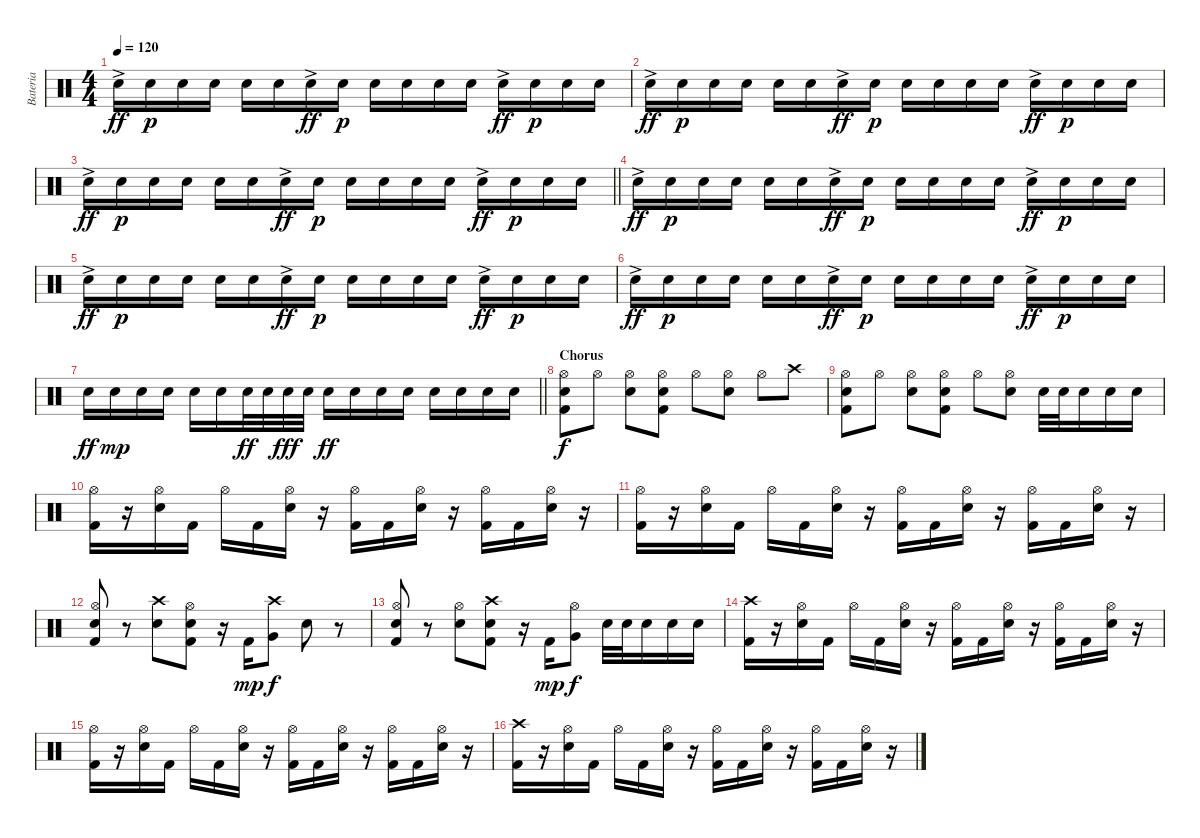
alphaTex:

\track ("Bateria" "Bateria") {instrument percussion}
\staff {score}
\articulation defaults
\ts (4 4)
\tempo 120
\clef neutral
\ks c "Electric Snare (hit)"{ac}.16{dy ff} "Electric Snare (hit)".16{dy p} "Electric Snare (hit)".16 "Electric Snare (hit)".16 "Electric Snare (hit)".16 "Electric Snare (hit)".16 "Electric Snare (hit)"{ac}.16{dy ff} "Electric Snare (hit)".16{dy p} "Electric Snare (hit)".16 "Electric Snare (hit)".16 "Electric Snare (hit)".16 "Electric Snare (hit)".16 "Electric Snare (hit)"{ac}.16{dy ff} "Electric Snare (hit)".16{dy p} "Electric Snare (hit)".16 "Electric Snare (hit)".16
|
"Electric Snare (hit)"{ac}.16{dy ff} "Electric Snare (hit)".16{dy p} "Electric Snare (hit)".16 "Electric Snare (hit)".16 "Electric Snare (hit)".16 "Electric Snare (hit)".16 "Electric Snare (hit)"{ac}.16{dy ff} "Electric Snare (hit)".16{dy p} "Electric Snare (hit)".16 "Electric Snare (hit)".16 "Electric Snare (hit)".16 "Electric Snare (hit)".16 "Electric Snare (hit)"{ac}.16{dy ff} "Electric Snare (hit)".16{dy p} "Electric Snare (hit)".16 "Electric Snare (hit)".16 |
\barLineRight lightlight "Electric Snare (hit)"{ac}.16{dy ff} "Electric Snare (hit)".16{dy p} "Electric Snare (hit)".16 "Electric Snare (hit)".16 "Electric Snare (hit)".16 "Electric Snare (hit)".16 "Electric Snare (hit)"{ac}.16{dy ff} "Electric Snare (hit)".16{dy p} "Electric Snare (hit)".16 "Electric Snare (hit)".16 "Electric Snare (hit)".16 "Electric Snare (hit)".16 "Electric Snare (hit)"{ac}.16{dy ff} "Electric Snare (hit)".16{dy p} "Electric Snare (hit)".16 "Electric Snare (hit)".16
|
"Electric Snare (hit)"{ac}.16{dy ff} "Electric Snare (hit)".16{dy p} "Electric Snare (hit)".16 "Electric Snare (hit)".16 "Electric Snare (hit)".16 "Electric Snare (hit)".16 "Electric Snare (hit)"{ac}.16{dy ff} "Electric Snare (hit)".16{dy p} "Electric Snare (hit)".16 "Electric Snare (hit)".16 "Electric Snare (hit)".16 "Electric Snare (hit)".16 "Electric Snare (hit)"{ac}.16{dy ff} "Electric Snare (hit)".16{dy p} "Electric Snare (hit)".16 "Electric Snare (hit)".16 |
"Electric Snare (hit)"{ac}.16{dy ff} "Electric Snare (hit)".16{dy p} "Electric Snare (hit)".16 "Electric Snare (hit)".16 "Electric Snare (hit)".16 "Electric Snare (hit)".16 "Electric Snare (hit)"{ac}.16{dy ff} "Electric Snare (hit)".16{dy p} "Electric Snare (hit)".16 "Electric Snare (hit)".16 "Electric Snare (hit)".16 "Electric Snare (hit)".16 "Electric Snare (hit)"{ac}.16{dy ff} "Electric Snare (hit)".16{dy p} "Electric Snare (hit)".16 "Electric Snare (hit)".16 |
"Electric Snare (hit)"{ac}.16{dy ff} "Electric Snare (hit)".16{dy p} "Electric Snare (hit)".16 "Electric Snare (hit)".16 "Electric Snare (hit)".16 "Electric Snare (hit)".16 "Electric Snare (hit)"{ac}.16{dy ff} "Electric Snare (hit)".16{dy p} "Electric Snare (hit)".16 "Electric Snare (hit)".16 "Electric Snare (hit)".16 "Electric Snare (hit)".16 "Electric Snare (hit)"{ac}.16{dy ff} "Electric Snare (hit)".16{dy p} "Electric Snare (hit)".16 "Electric Snare (hit)".16 |
\barLineRight lightlight "Electric Snare (hit)".16{dy ff} "Electric Snare (hit)".16{dy mp} "Electric Snare (hit)".16 "Electric Snare (hit)".16 "Electric Snare (hit)".16 "Electric Snare (hit)".16 "Electric Snare (hit)".32{dy ff} "Electric Snare (hit)".32 "Electric Snare (hit)".32{dy fff} "Electric Snare (hit)".32 "Electric Snare (hit)".16{dy ff} "Electric Snare (hit)".16 "Electric Snare (hit)".16 "Electric Snare (hit)".16 "Electric Snare (hit)".16 "Electric Snare (hit)".16 "Electric Snare (hit)".16 "Electric Snare (hit)".16
|
\section ("" "Chorus")
("Hi-Hat (open)" "Electric Snare (hit)" "Kick (hit) 2").8{dy f} "Hi-Hat (open)".8 ("Hi-Hat (open)" "Electric Snare (hit)").8 ("Hi-Hat (open)" "Electric Snare (hit)" "Kick (hit) 2").8 "Hi-Hat (open)".8 ("Hi-Hat (open)" "Electric Snare (hit)").8 "Hi-Hat (open)".8 "Crash high (hit)".8 |
("Hi-Hat (open)" "Electric Snare (hit)" "Kick (hit) 2").8 "Hi-Hat (open)".8 ("Hi-Hat (open)" "Electric Snare (hit)").8 ("Hi-Hat (open)" "Electric Snare (hit)" "Kick (hit) 2").8 "Hi-Hat (open)".8 ("Hi-Hat (open)" "Electric Snare (hit)").8 "Electric Snare (hit)".32 "Electric Snare (hit)".32 "Electric Snare (hit)".16 "Electric Snare (hit)".16 "Electric Snare (hit)".16 |
("Hi-Hat (open)" "Kick (hit) 2").16 r.16 ("Hi-Hat (open)" "Electric Snare (hit)").16 "Kick (hit) 2".16 "Hi-Hat (open)".16 "Kick (hit) 2".16 ("Hi-Hat (open)" "Electric Snare (hit)").16 r.16 ("Hi-Hat (open)" "Kick (hit) 2").16 "Kick (hit) 2".16 ("Hi-Hat (open)" "Electric Snare (hit)").16 r.16 ("Hi-Hat (open)" "Kick (hit) 2").16 "Kick (hit) 2".16 ("Hi-Hat (open)" "Electric Snare (hit)").16 r.16 |
("Hi-Hat (open)" "Kick (hit) 2").16 r.16 ("Hi-Hat (open)" "Electric Snare (hit)").16 "Kick (hit) 2".16 "Hi-Hat (open)".16 "Kick (hit) 2".16 ("Hi-Hat (open)" "Electric Snare (hit)").16 r.16 ("Hi-Hat (open)" "Kick (hit) 2").16 "Kick (hit) 2".16 ("Hi-Hat (open)" "Electric Snare (hit)").16 r.16 ("Hi-Hat (open)" "Kick (hit) 2").16 "Kick (hit) 2".16 ("Hi-Hat (open)" "Electric Snare (hit)").16 r.16 |
("Hi-Hat (open)" "Electric Snare (hit)" "Kick (hit) 2").8 r.8 ("Crash high (hit)" "Electric Snare (hit)").8 ("Hi-Hat (open)" "Electric Snare (hit)" "Kick (hit) 2").8 r.16 "Kick (hit) 2".16{dy mp} ("Crash high (hit)" "Very Low Tom (hit)").8{dy f} "Electric Snare (hit)".8 r.8 |
("Hi-Hat (open)" "Electric Snare (hit)" "Kick (hit) 2").8 r.8 ("Hi-Hat (open)" "Electric Snare (hit)").8 ("Crash high (hit)" "Electric Snare (hit)" "Kick (hit) 2").8 r.16 "Kick (hit) 2".16{dy mp} ("Hi-Hat (open)" "Very Low Tom (hit)").8{dy f} "Electric Snare (hit)".32 "Electric Snare (hit)".32 "Electric Snare (hit)".16 "Electric Snare (hit)".16 "Electric Snare (hit)".16 |
("Crash high (hit)" "Kick (hit) 2").16 r.16 ("Hi-Hat (open)" "Electric Snare (hit)").16 "Kick (hit) 2".16 "Hi-Hat (open)".16 "Kick (hit) 2".16 ("Hi-Hat (open)" "Electric Snare (hit)").16 r.16 ("Hi-Hat (open)" "Kick (hit) 2").16 "Kick (hit) 2".16 ("Hi-Hat (open)" "Electric Snare (hit)").16 r.16 ("Hi-Hat (open)" "Kick (hit) 2").16 "Kick (hit) 2".16 ("Hi-Hat (open)" "Electric Snare (hit)").16 r.16 |
("Hi-Hat (open)" "Kick (hit) 2").16 r.16 ("Hi-Hat (open)" "Electric Snare (hit)").16 "Kick (hit) 2".16 "Hi-Hat (open)".16 "Kick (hit) 2".16 ("Hi-Hat (open)" "Electric Snare (hit)").16 r.16 ("Hi-Hat (open)" "Kick (hit) 2").16 "Kick (hit) 2".16 ("Hi-Hat (open)" "Electric Snare (hit)").16 r.16 ("Hi-Hat (open)" "Kick (hit) 2").16 "Kick (hit) 2".16 ("Hi-Hat (open)" "Electric Snare (hit)").16 r.16 |
("Crash high (hit)" "Kick (hit) 2").16 r.16 ("Hi-Hat (open)" "Electric Snare (hit)").16 "Kick (hit) 2".16 "Hi-Hat (open)".16 "Kick (hit) 2".16 ("Hi-Hat (open)" "Electric Snare (hit)").16 r.16 ("Hi-Hat (open)" "Kick (hit) 2").16 "Kick (hit) 2".16 ("Hi-Hat (open)" "Electric Snare (hit)").16 r.16 ("Hi-Hat (open)" "Kick (hit) 2").16 "Kick (hit) 2".16 ("Hi-Hat (open)" "Electric Snare (hit)").16 r.16
